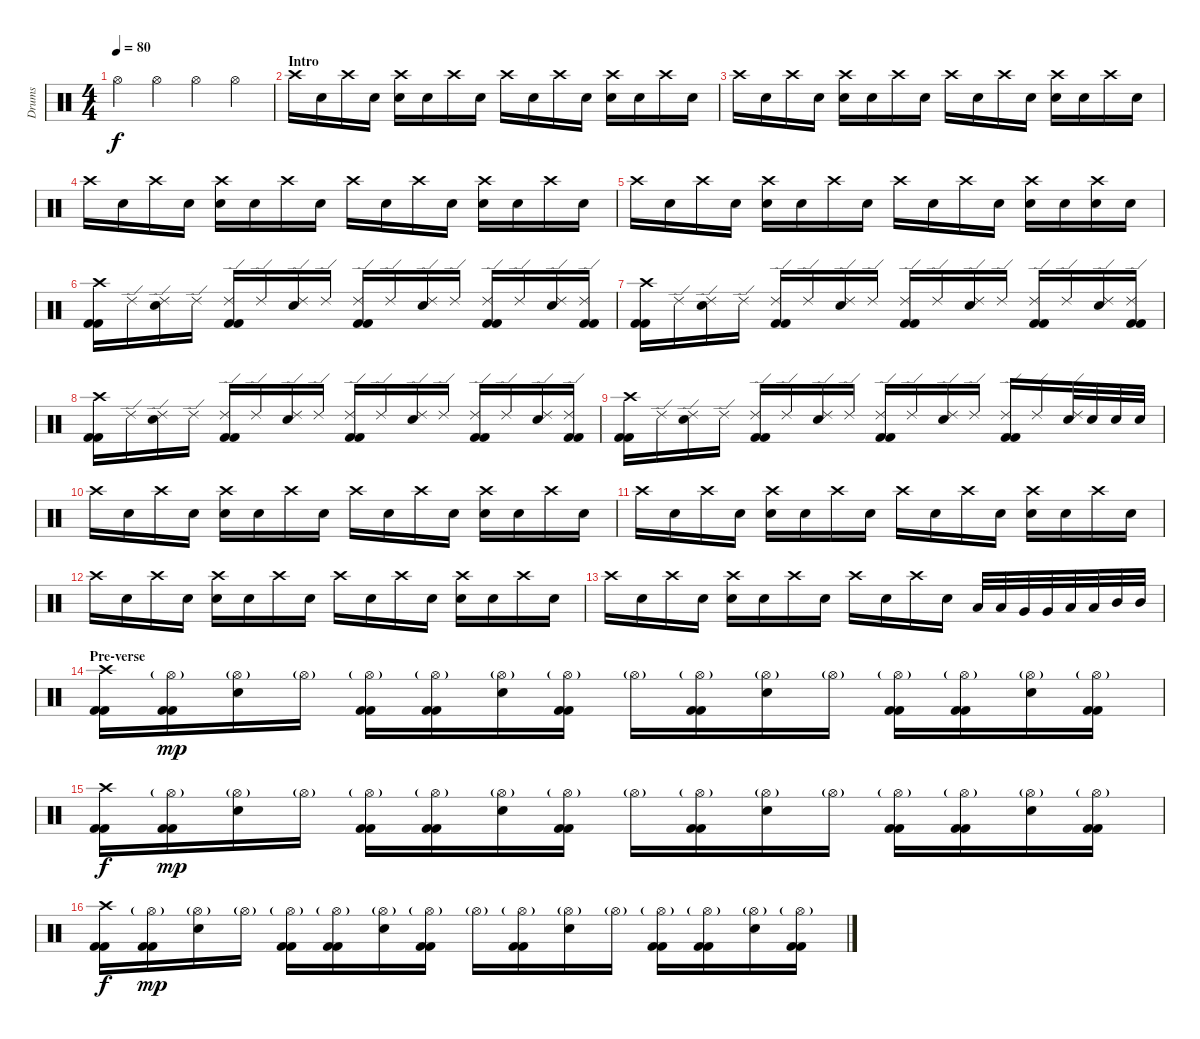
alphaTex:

\track ("Drums" "Drums") {instrument percussion}
\staff {score}
\articulation defaults
\ts (4 4)
\tempo 80
\clef neutral
\ks c "Hi-Hat (open)".4{dy f} "Hi-Hat (open)".4 "Hi-Hat (open)".4 "Hi-Hat (open)".4
|
\section ("" "Intro")
"Crash high (hit)".16 "Snare (hit)"{x}.16 "Crash high (hit)".16 "Snare (hit)"{x}.16 ("Crash high (hit)" "Electric Snare (hit)").16 "Snare (hit)"{x}.16 "Crash high (hit)".16 "Snare (hit)"{x}.16 "Crash high (hit)".16 "Snare (hit)"{x}.16 "Crash high (hit)".16 "Snare (hit)"{x}.16 ("Crash high (hit)" "Electric Snare (hit)").16 "Snare (hit)"{x}.16 "Crash high (hit)".16 "Snare (hit)"{x}.16 |
"Crash high (hit)".16 "Snare (hit)"{x}.16 "Crash high (hit)".16 "Snare (hit)"{x}.16 ("Crash high (hit)" "Electric Snare (hit)").16 "Snare (hit)"{x}.16 "Crash high (hit)".16 "Snare (hit)"{x}.16 "Crash high (hit)".16 "Snare (hit)"{x}.16 "Crash high (hit)".16 "Snare (hit)"{x}.16 ("Crash high (hit)" "Electric Snare (hit)").16 "Snare (hit)"{x}.16 "Crash high (hit)".16 "Snare (hit)"{x}.16 |
"Crash high (hit)".16 "Snare (hit)"{x}.16 "Crash high (hit)".16 "Snare (hit)"{x}.16 ("Crash high (hit)" "Electric Snare (hit)").16 "Snare (hit)"{x}.16 "Crash high (hit)".16 "Snare (hit)"{x}.16 "Crash high (hit)".16 "Snare (hit)"{x}.16 "Crash high (hit)".16 "Snare (hit)"{x}.16 ("Crash high (hit)" "Electric Snare (hit)").16 "Snare (hit)"{x}.16 "Crash high (hit)".16 "Snare (hit)"{x}.16 |
"Crash high (hit)".16 "Snare (hit)"{x}.16 "Crash high (hit)".16 "Snare (hit)"{x}.16 ("Crash high (hit)" "Electric Snare (hit)").16 "Snare (hit)"{x}.16 "Crash high (hit)".16 "Snare (hit)"{x}.16 "Crash high (hit)".16 "Snare (hit)"{x}.16 "Crash high (hit)".16 "Snare (hit)"{x}.16 ("Crash high (hit)" "Electric Snare (hit)").16 "Snare (hit)"{x}.16 ("Crash high (hit)" "Electric Snare (hit)").16 "Snare (hit)"{x}.16 |
("Crash high (hit)" "Kick (hit) 2" "Kick (hit) 2").16 "Ride (edge) 2".16 ("Ride (edge) 2" "Electric Snare (hit)").16 "Ride (edge) 2".16 ("Ride (edge) 2" "Kick (hit) 2" "Kick (hit) 2").16 "Ride (edge) 2".16 ("Ride (edge) 2" "Electric Snare (hit)").16 "Ride (edge) 2".16 ("Ride (edge) 2" "Kick (hit) 2" "Kick (hit) 2").16 "Ride (edge) 2".16 ("Ride (edge) 2" "Electric Snare (hit)").16 "Ride (edge) 2".16 ("Ride (edge) 2" "Kick (hit) 2" "Kick (hit) 2").16 "Ride (edge) 2".16 ("Ride (edge) 2" "Electric Snare (hit)").16 ("Ride (edge) 2" "Kick (hit) 2" "Kick (hit) 2").16 |
("Crash high (hit)" "Kick (hit) 2" "Kick (hit) 2").16 "Ride (edge) 2".16 ("Ride (edge) 2" "Electric Snare (hit)").16 "Ride (edge) 2".16 ("Ride (edge) 2" "Kick (hit) 2" "Kick (hit) 2").16 "Ride (edge) 2".16 ("Ride (edge) 2" "Electric Snare (hit)").16 "Ride (edge) 2".16 ("Ride (edge) 2" "Kick (hit) 2" "Kick (hit) 2").16 "Ride (edge) 2".16 ("Ride (edge) 2" "Electric Snare (hit)").16 "Ride (edge) 2".16 ("Ride (edge) 2" "Kick (hit) 2" "Kick (hit) 2").16 "Ride (edge) 2".16 ("Ride (edge) 2" "Electric Snare (hit)").16 ("Ride (edge) 2" "Kick (hit) 2" "Kick (hit) 2").16 |
("Crash high (hit)" "Kick (hit) 2" "Kick (hit) 2").16 "Ride (edge) 2".16 ("Ride (edge) 2" "Electric Snare (hit)").16 "Ride (edge) 2".16 ("Ride (edge) 2" "Kick (hit) 2" "Kick (hit) 2").16 "Ride (edge) 2".16 ("Ride (edge) 2" "Electric Snare (hit)").16 "Ride (edge) 2".16 ("Ride (edge) 2" "Kick (hit) 2" "Kick (hit) 2").16 "Ride (edge) 2".16 ("Ride (edge) 2" "Electric Snare (hit)").16 "Ride (edge) 2".16 ("Ride (edge) 2" "Kick (hit) 2" "Kick (hit) 2").16 "Ride (edge) 2".16 ("Ride (edge) 2" "Electric Snare (hit)").16 ("Ride (edge) 2" "Kick (hit) 2" "Kick (hit) 2").16 |
("Crash high (hit)" "Kick (hit) 2" "Kick (hit) 2").16 "Ride (edge) 2".16 ("Ride (edge) 2" "Electric Snare (hit)").16 "Ride (edge) 2".16 ("Ride (edge) 2" "Kick (hit) 2" "Kick (hit) 2").16 "Ride (edge) 2".16 ("Ride (edge) 2" "Electric Snare (hit)").16 "Ride (edge) 2".16 ("Ride (edge) 2" "Kick (hit) 2" "Kick (hit) 2").16 "Ride (edge) 2".16 ("Ride (edge) 2" "Electric Snare (hit)").16 "Ride (edge) 2".16 ("Ride (edge) 2" "Kick (hit) 2" "Kick (hit) 2").16 "Ride (edge) 2".16 ("Ride (edge) 2" "Electric Snare (hit)").32 "Electric Snare (hit)".32 "Electric Snare (hit)".32 "Electric Snare (hit)".32 |
"Crash high (hit)".16 "Snare (hit)"{x}.16 "Crash high (hit)".16 "Snare (hit)"{x}.16 ("Crash high (hit)" "Electric Snare (hit)").16 "Snare (hit)"{x}.16 "Crash high (hit)".16 "Snare (hit)"{x}.16 "Crash high (hit)".16 "Snare (hit)"{x}.16 "Crash high (hit)".16 "Snare (hit)"{x}.16 ("Crash high (hit)" "Electric Snare (hit)").16 "Snare (hit)"{x}.16 "Crash high (hit)".16 "Snare (hit)"{x}.16 |
"Crash high (hit)".16 "Snare (hit)"{x}.16 "Crash high (hit)".16 "Snare (hit)"{x}.16 ("Crash high (hit)" "Electric Snare (hit)").16 "Snare (hit)"{x}.16 "Crash high (hit)".16 "Snare (hit)"{x}.16 "Crash high (hit)".16 "Snare (hit)"{x}.16 "Crash high (hit)".16 "Snare (hit)"{x}.16 ("Crash high (hit)" "Electric Snare (hit)").16 "Snare (hit)"{x}.16 "Crash high (hit)".16 "Snare (hit)"{x}.16 |
"Crash high (hit)".16 "Snare (hit)"{x}.16 "Crash high (hit)".16 "Snare (hit)"{x}.16 ("Crash high (hit)" "Electric Snare (hit)").16 "Snare (hit)"{x}.16 "Crash high (hit)".16 "Snare (hit)"{x}.16 "Crash high (hit)".16 "Snare (hit)"{x}.16 "Crash high (hit)".16 "Snare (hit)"{x}.16 ("Crash high (hit)" "Electric Snare (hit)").16 "Snare (hit)"{x}.16 "Crash high (hit)".16 "Snare (hit)"{x}.16 |
"Crash high (hit)".16 "Snare (hit)"{x}.16 "Crash high (hit)".16 "Snare (hit)"{x}.16 ("Crash high (hit)" "Electric Snare (hit)").16 "Snare (hit)"{x}.16 "Crash high (hit)".16 "Snare (hit)"{x}.16 "Crash high (hit)".16 "Snare (hit)"{x}.16 "Crash high (hit)".16 "Snare (hit)"{x}.16 "Low Floor Tom (hit)".32 "Low Floor Tom (hit)".32 "Very Low Tom (hit)".32 "Very Low Tom (hit)".32 "Low Tom (hit)".32 "Low Tom (hit)".32 "Mid Tom (hit)".32 "Mid Tom (hit)".32 |
\section ("" "Pre-verse")
("Crash high (hit)" "Kick (hit) 2" "Kick (hit) 2").16 ("Hi-Hat (open)"{g} "Kick (hit) 2" "Kick (hit) 2").16{dy mp} ("Hi-Hat (open)"{g} "Electric Snare (hit)").16 "Hi-Hat (open)"{g}.16 ("Hi-Hat (open)"{g} "Kick (hit) 2" "Kick (hit) 2").16 ("Hi-Hat (open)"{g} "Kick (hit) 2" "Kick (hit) 2").16 ("Hi-Hat (open)"{g} "Electric Snare (hit)").16 ("Hi-Hat (open)"{g} "Kick (hit) 2" "Kick (hit) 2").16 "Hi-Hat (open)"{g}.16 ("Hi-Hat (open)"{g} "Kick (hit) 2" "Kick (hit) 2").16 ("Hi-Hat (open)"{g} "Electric Snare (hit)").16 "Hi-Hat (open)"{g}.16 ("Hi-Hat (open)"{g} "Kick (hit) 2" "Kick (hit) 2").16 ("Hi-Hat (open)"{g} "Kick (hit) 2" "Kick (hit) 2").16 ("Hi-Hat (open)"{g} "Electric Snare (hit)").16 ("Hi-Hat (open)"{g} "Kick (hit) 2" "Kick (hit) 2").16 |
("Crash high (hit)" "Kick (hit) 2" "Kick (hit) 2").16{dy f} ("Hi-Hat (open)"{g} "Kick (hit) 2" "Kick (hit) 2").16{dy mp} ("Hi-Hat (open)"{g} "Electric Snare (hit)").16 "Hi-Hat (open)"{g}.16 ("Hi-Hat (open)"{g} "Kick (hit) 2" "Kick (hit) 2").16 ("Hi-Hat (open)"{g} "Kick (hit) 2" "Kick (hit) 2").16 ("Hi-Hat (open)"{g} "Electric Snare (hit)").16 ("Hi-Hat (open)"{g} "Kick (hit) 2" "Kick (hit) 2").16 "Hi-Hat (open)"{g}.16 ("Hi-Hat (open)"{g} "Kick (hit) 2" "Kick (hit) 2").16 ("Hi-Hat (open)"{g} "Electric Snare (hit)").16 "Hi-Hat (open)"{g}.16 ("Hi-Hat (open)"{g} "Kick (hit) 2" "Kick (hit) 2").16 ("Hi-Hat (open)"{g} "Kick (hit) 2" "Kick (hit) 2").16 ("Hi-Hat (open)"{g} "Electric Snare (hit)").16 ("Hi-Hat (open)"{g} "Kick (hit) 2" "Kick (hit) 2").16 |
("Crash high (hit)" "Kick (hit) 2" "Kick (hit) 2").16{dy f} ("Hi-Hat (open)"{g} "Kick (hit) 2" "Kick (hit) 2").16{dy mp} ("Hi-Hat (open)"{g} "Electric Snare (hit)").16 "Hi-Hat (open)"{g}.16 ("Hi-Hat (open)"{g} "Kick (hit) 2" "Kick (hit) 2").16 ("Hi-Hat (open)"{g} "Kick (hit) 2" "Kick (hit) 2").16 ("Hi-Hat (open)"{g} "Electric Snare (hit)").16 ("Hi-Hat (open)"{g} "Kick (hit) 2" "Kick (hit) 2").16 "Hi-Hat (open)"{g}.16 ("Hi-Hat (open)"{g} "Kick (hit) 2" "Kick (hit) 2").16 ("Hi-Hat (open)"{g} "Electric Snare (hit)").16 "Hi-Hat (open)"{g}.16 ("Hi-Hat (open)"{g} "Kick (hit) 2" "Kick (hit) 2").16 ("Hi-Hat (open)"{g} "Kick (hit) 2" "Kick (hit) 2").16 ("Hi-Hat (open)"{g} "Electric Snare (hit)").16 ("Hi-Hat (open)"{g} "Kick (hit) 2" "Kick (hit) 2").16
